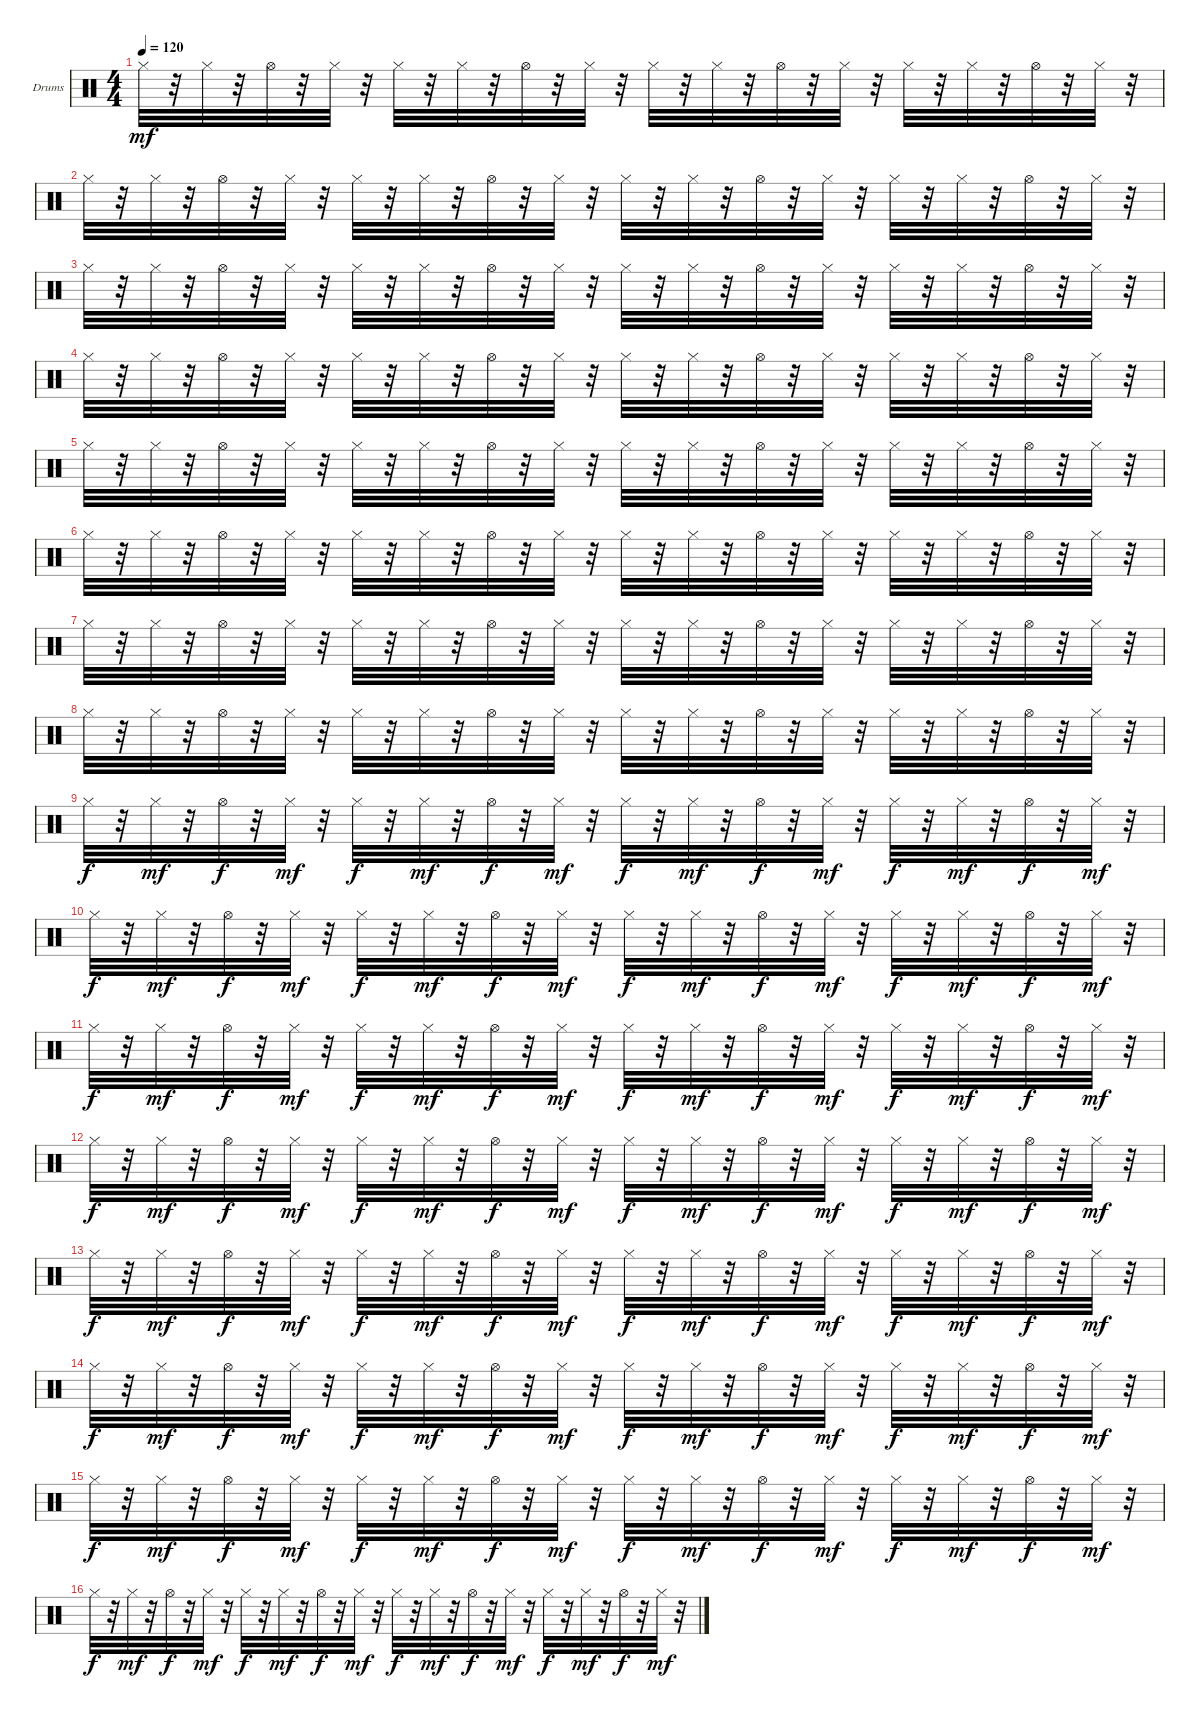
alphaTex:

\defaultSystemsLayout 4
\bracketExtendMode groupsimilarinstruments
\firstSystemTrackNameOrientation horizontal
\otherSystemsTrackNameOrientation horizontal
\track ("Drumkit" "Drums") {instrument percussion}
\staff {score}
\articulation defaults
\ts (4 4)
\tempo 120
\clef neutral
\scale
0.333333
\ks c "Hi-Hat (closed)".32{dy mf}
r.32 "Hi-Hat (closed)".32 r.32 "Hi-Hat (open)".32 r.32 "Hi-Hat (closed)".32 r.32 "Hi-Hat (closed)".32 r.32 "Hi-Hat (closed)".32 r.32 "Hi-Hat (open)".32 r.32 "Hi-Hat (closed)".32 r.32 "Hi-Hat (closed)".32 r.32 "Hi-Hat (closed)".32 r.32 "Hi-Hat (open)".32 r.32 "Hi-Hat (closed)".32 r.32 "Hi-Hat (closed)".32 r.32 "Hi-Hat (closed)".32 r.32 "Hi-Hat (open)".32 r.32 "Hi-Hat (closed)".32 r.32 |
\scale
0.333333 "Hi-Hat (closed)".32 r.32 "Hi-Hat (closed)".32 r.32 "Hi-Hat (open)".32 r.32 "Hi-Hat (closed)".32 r.32 "Hi-Hat (closed)".32 r.32 "Hi-Hat (closed)".32 r.32 "Hi-Hat (open)".32 r.32 "Hi-Hat (closed)".32 r.32 "Hi-Hat (closed)".32 r.32 "Hi-Hat (closed)".32 r.32 "Hi-Hat (open)".32 r.32 "Hi-Hat (closed)".32 r.32 "Hi-Hat (closed)".32 r.32 "Hi-Hat (closed)".32 r.32 "Hi-Hat (open)".32 r.32 "Hi-Hat (closed)".32 r.32 |
\scale
0.333333 "Hi-Hat (closed)".32 r.32 "Hi-Hat (closed)".32 r.32 "Hi-Hat (open)".32 r.32 "Hi-Hat (closed)".32 r.32 "Hi-Hat (closed)".32 r.32 "Hi-Hat (closed)".32 r.32 "Hi-Hat (open)".32 r.32 "Hi-Hat (closed)".32 r.32 "Hi-Hat (closed)".32 r.32 "Hi-Hat (closed)".32 r.32 "Hi-Hat (open)".32 r.32 "Hi-Hat (closed)".32 r.32 "Hi-Hat (closed)".32 r.32 "Hi-Hat (closed)".32 r.32 "Hi-Hat (open)".32 r.32 "Hi-Hat (closed)".32 r.32 |
\scale
0.333333 "Hi-Hat (closed)".32 r.32 "Hi-Hat (closed)".32 r.32 "Hi-Hat (open)".32 r.32 "Hi-Hat (closed)".32 r.32 "Hi-Hat (closed)".32 r.32 "Hi-Hat (closed)".32 r.32 "Hi-Hat (open)".32 r.32 "Hi-Hat (closed)".32 r.32 "Hi-Hat (closed)".32 r.32 "Hi-Hat (closed)".32 r.32 "Hi-Hat (open)".32 r.32 "Hi-Hat (closed)".32 r.32 "Hi-Hat (closed)".32 r.32 "Hi-Hat (closed)".32 r.32 "Hi-Hat (open)".32 r.32 "Hi-Hat (closed)".32 r.32 |
\scale
0.333333 "Hi-Hat (closed)".32 r.32 "Hi-Hat (closed)".32 r.32 "Hi-Hat (open)".32 r.32 "Hi-Hat (closed)".32 r.32 "Hi-Hat (closed)".32 r.32 "Hi-Hat (closed)".32 r.32 "Hi-Hat (open)".32 r.32 "Hi-Hat (closed)".32 r.32 "Hi-Hat (closed)".32 r.32 "Hi-Hat (closed)".32 r.32 "Hi-Hat (open)".32 r.32 "Hi-Hat (closed)".32 r.32 "Hi-Hat (closed)".32 r.32 "Hi-Hat (closed)".32 r.32 "Hi-Hat (open)".32 r.32 "Hi-Hat (closed)".32 r.32 |
\scale
0.333333 "Hi-Hat (closed)".32 r.32 "Hi-Hat (closed)".32 r.32 "Hi-Hat (open)".32 r.32 "Hi-Hat (closed)".32 r.32 "Hi-Hat (closed)".32 r.32 "Hi-Hat (closed)".32 r.32 "Hi-Hat (open)".32 r.32 "Hi-Hat (closed)".32 r.32 "Hi-Hat (closed)".32 r.32 "Hi-Hat (closed)".32 r.32 "Hi-Hat (open)".32 r.32 "Hi-Hat (closed)".32 r.32 "Hi-Hat (closed)".32 r.32 "Hi-Hat (closed)".32 r.32 "Hi-Hat (open)".32 r.32 "Hi-Hat (closed)".32 r.32 |
\scale
0.333333 "Hi-Hat (closed)".32 r.32 "Hi-Hat (closed)".32 r.32 "Hi-Hat (open)".32 r.32 "Hi-Hat (closed)".32 r.32 "Hi-Hat (closed)".32 r.32 "Hi-Hat (closed)".32 r.32 "Hi-Hat (open)".32 r.32 "Hi-Hat (closed)".32 r.32 "Hi-Hat (closed)".32 r.32 "Hi-Hat (closed)".32 r.32 "Hi-Hat (open)".32 r.32 "Hi-Hat (closed)".32 r.32 "Hi-Hat (closed)".32 r.32 "Hi-Hat (closed)".32 r.32 "Hi-Hat (open)".32 r.32 "Hi-Hat (closed)".32 r.32 |
\scale
0.333333 "Hi-Hat (closed)".32 r.32 "Hi-Hat (closed)".32 r.32 "Hi-Hat (open)".32 r.32 "Hi-Hat (closed)".32 r.32 "Hi-Hat (closed)".32 r.32 "Hi-Hat (closed)".32 r.32 "Hi-Hat (open)".32 r.32 "Hi-Hat (closed)".32 r.32 "Hi-Hat (closed)".32 r.32 "Hi-Hat (closed)".32 r.32 "Hi-Hat (open)".32 r.32 "Hi-Hat (closed)".32 r.32 "Hi-Hat (closed)".32 r.32 "Hi-Hat (closed)".32 r.32 "Hi-Hat (open)".32 r.32 "Hi-Hat (closed)".32 r.32 |
\scale
0.333333 "Hi-Hat (closed)".32{dy f} r.32 "Hi-Hat (closed)".32{dy mf} r.32 "Hi-Hat (open)".32{dy f} r.32 "Hi-Hat (closed)".32{dy mf} r.32 "Hi-Hat (closed)".32{dy f} r.32 "Hi-Hat (closed)".32{dy mf} r.32 "Hi-Hat (open)".32{dy f} r.32 "Hi-Hat (closed)".32{dy mf} r.32 "Hi-Hat (closed)".32{dy f} r.32 "Hi-Hat (closed)".32{dy mf} r.32 "Hi-Hat (open)".32{dy f} r.32 "Hi-Hat (closed)".32{dy mf} r.32 "Hi-Hat (closed)".32{dy f} r.32 "Hi-Hat (closed)".32{dy mf} r.32 "Hi-Hat (open)".32{dy f} r.32 "Hi-Hat (closed)".32{dy mf} r.32 |
\scale
0.333333 "Hi-Hat (closed)".32{dy f} r.32 "Hi-Hat (closed)".32{dy mf} r.32 "Hi-Hat (open)".32{dy f} r.32 "Hi-Hat (closed)".32{dy mf} r.32 "Hi-Hat (closed)".32{dy f} r.32 "Hi-Hat (closed)".32{dy mf} r.32 "Hi-Hat (open)".32{dy f} r.32 "Hi-Hat (closed)".32{dy mf} r.32 "Hi-Hat (closed)".32{dy f} r.32 "Hi-Hat (closed)".32{dy mf} r.32 "Hi-Hat (open)".32{dy f} r.32 "Hi-Hat (closed)".32{dy mf} r.32 "Hi-Hat (closed)".32{dy f} r.32 "Hi-Hat (closed)".32{dy mf} r.32 "Hi-Hat (open)".32{dy f} r.32 "Hi-Hat (closed)".32{dy mf} r.32 |
\scale
0.333333 "Hi-Hat (closed)".32{dy f} r.32 "Hi-Hat (closed)".32{dy mf} r.32 "Hi-Hat (open)".32{dy f} r.32 "Hi-Hat (closed)".32{dy mf} r.32 "Hi-Hat (closed)".32{dy f} r.32 "Hi-Hat (closed)".32{dy mf} r.32 "Hi-Hat (open)".32{dy f} r.32 "Hi-Hat (closed)".32{dy mf} r.32 "Hi-Hat (closed)".32{dy f} r.32 "Hi-Hat (closed)".32{dy mf} r.32 "Hi-Hat (open)".32{dy f} r.32 "Hi-Hat (closed)".32{dy mf} r.32 "Hi-Hat (closed)".32{dy f} r.32 "Hi-Hat (closed)".32{dy mf} r.32 "Hi-Hat (open)".32{dy f} r.32 "Hi-Hat (closed)".32{dy mf} r.32 |
\scale
0.333333 "Hi-Hat (closed)".32{dy f} r.32 "Hi-Hat (closed)".32{dy mf} r.32 "Hi-Hat (open)".32{dy f} r.32 "Hi-Hat (closed)".32{dy mf} r.32 "Hi-Hat (closed)".32{dy f} r.32 "Hi-Hat (closed)".32{dy mf} r.32 "Hi-Hat (open)".32{dy f} r.32 "Hi-Hat (closed)".32{dy mf} r.32 "Hi-Hat (closed)".32{dy f} r.32 "Hi-Hat (closed)".32{dy mf} r.32 "Hi-Hat (open)".32{dy f} r.32 "Hi-Hat (closed)".32{dy mf} r.32 "Hi-Hat (closed)".32{dy f} r.32 "Hi-Hat (closed)".32{dy mf} r.32 "Hi-Hat (open)".32{dy f} r.32 "Hi-Hat (closed)".32{dy mf} r.32 |
\scale
0.333333 "Hi-Hat (closed)".32{dy f} r.32 "Hi-Hat (closed)".32{dy mf} r.32 "Hi-Hat (open)".32{dy f} r.32 "Hi-Hat (closed)".32{dy mf} r.32 "Hi-Hat (closed)".32{dy f} r.32 "Hi-Hat (closed)".32{dy mf} r.32 "Hi-Hat (open)".32{dy f} r.32 "Hi-Hat (closed)".32{dy mf} r.32 "Hi-Hat (closed)".32{dy f} r.32 "Hi-Hat (closed)".32{dy mf} r.32 "Hi-Hat (open)".32{dy f} r.32 "Hi-Hat (closed)".32{dy mf} r.32 "Hi-Hat (closed)".32{dy f} r.32 "Hi-Hat (closed)".32{dy mf} r.32 "Hi-Hat (open)".32{dy f} r.32 "Hi-Hat (closed)".32{dy mf} r.32 |
\scale
0.333333 "Hi-Hat (closed)".32{dy f} r.32 "Hi-Hat (closed)".32{dy mf} r.32 "Hi-Hat (open)".32{dy f} r.32 "Hi-Hat (closed)".32{dy mf} r.32 "Hi-Hat (closed)".32{dy f} r.32 "Hi-Hat (closed)".32{dy mf} r.32 "Hi-Hat (open)".32{dy f} r.32 "Hi-Hat (closed)".32{dy mf} r.32 "Hi-Hat (closed)".32{dy f} r.32 "Hi-Hat (closed)".32{dy mf} r.32 "Hi-Hat (open)".32{dy f} r.32 "Hi-Hat (closed)".32{dy mf} r.32 "Hi-Hat (closed)".32{dy f} r.32 "Hi-Hat (closed)".32{dy mf} r.32 "Hi-Hat (open)".32{dy f} r.32 "Hi-Hat (closed)".32{dy mf} r.32 |
\scale
0.333333 "Hi-Hat (closed)".32{dy f} r.32 "Hi-Hat (closed)".32{dy mf} r.32 "Hi-Hat (open)".32{dy f} r.32 "Hi-Hat (closed)".32{dy mf} r.32 "Hi-Hat (closed)".32{dy f} r.32 "Hi-Hat (closed)".32{dy mf} r.32 "Hi-Hat (open)".32{dy f} r.32 "Hi-Hat (closed)".32{dy mf} r.32 "Hi-Hat (closed)".32{dy f} r.32 "Hi-Hat (closed)".32{dy mf} r.32 "Hi-Hat (open)".32{dy f} r.32 "Hi-Hat (closed)".32{dy mf} r.32 "Hi-Hat (closed)".32{dy f} r.32 "Hi-Hat (closed)".32{dy mf} r.32 "Hi-Hat (open)".32{dy f} r.32 "Hi-Hat (closed)".32{dy mf} r.32 |
\scale
0.333333 "Hi-Hat (closed)".32{dy f} r.32 "Hi-Hat (closed)".32{dy mf} r.32 "Hi-Hat (open)".32{dy f} r.32 "Hi-Hat (closed)".32{dy mf} r.32 "Hi-Hat (closed)".32{dy f} r.32 "Hi-Hat (closed)".32{dy mf} r.32 "Hi-Hat (open)".32{dy f} r.32 "Hi-Hat (closed)".32{dy mf} r.32 "Hi-Hat (closed)".32{dy f} r.32 "Hi-Hat (closed)".32{dy mf} r.32 "Hi-Hat (open)".32{dy f} r.32 "Hi-Hat (closed)".32{dy mf} r.32 "Hi-Hat (closed)".32{dy f} r.32 "Hi-Hat (closed)".32{dy mf} r.32 "Hi-Hat (open)".32{dy f} r.32 "Hi-Hat (closed)".32{dy mf} r.32
